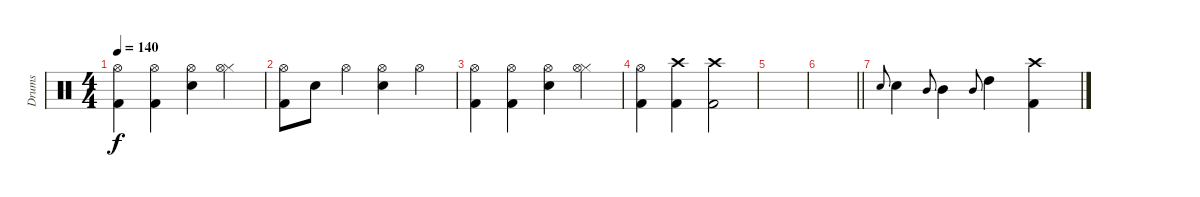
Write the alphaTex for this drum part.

\track ("Drums" "Drums") {instrument percussion}
\staff {score}
\articulation defaults
\ts (4 4)
\tempo 140
\clef neutral
\ks c
("Kick (hit) 2" "Hi-Hat (open)").4{dy f} ("Kick (hit) 2" "Hi-Hat (open)").4 ("Electric Snare (hit)" "Hi-Hat (open)").4 ("Hi-Hat (closed)" "Hi-Hat (open)").4 |
("Kick (hit) 2" "Hi-Hat (open)").8 "Electric Snare (hit)".8 "Hi-Hat (open)".4 ("Electric Snare (hit)" "Hi-Hat (open)").4 "Hi-Hat (open)".4 |
("Kick (hit) 2" "Hi-Hat (open)").4 ("Kick (hit) 2" "Hi-Hat (open)").4 ("Electric Snare (hit)" "Hi-Hat (open)").4 ("Hi-Hat (closed)" "Hi-Hat (open)").4 |
("Kick (hit) 2" "Hi-Hat (open)").4 ("Crash high (hit)" "Kick (hit) 2").4 ("Crash high (hit)" "Kick (hit) 2").2 |
|
\barLineRight lightlight
|
"Electric Snare (hit)".8{gr onbeat} "Electric Snare (hit)".4 "Mid Tom (hit)".8{gr onbeat} "Mid Tom (hit)".4 "Mid Tom (hit)".8{gr onbeat} "High Tom (hit)".4 ("Kick (hit) 2" "Crash high (hit)").4
